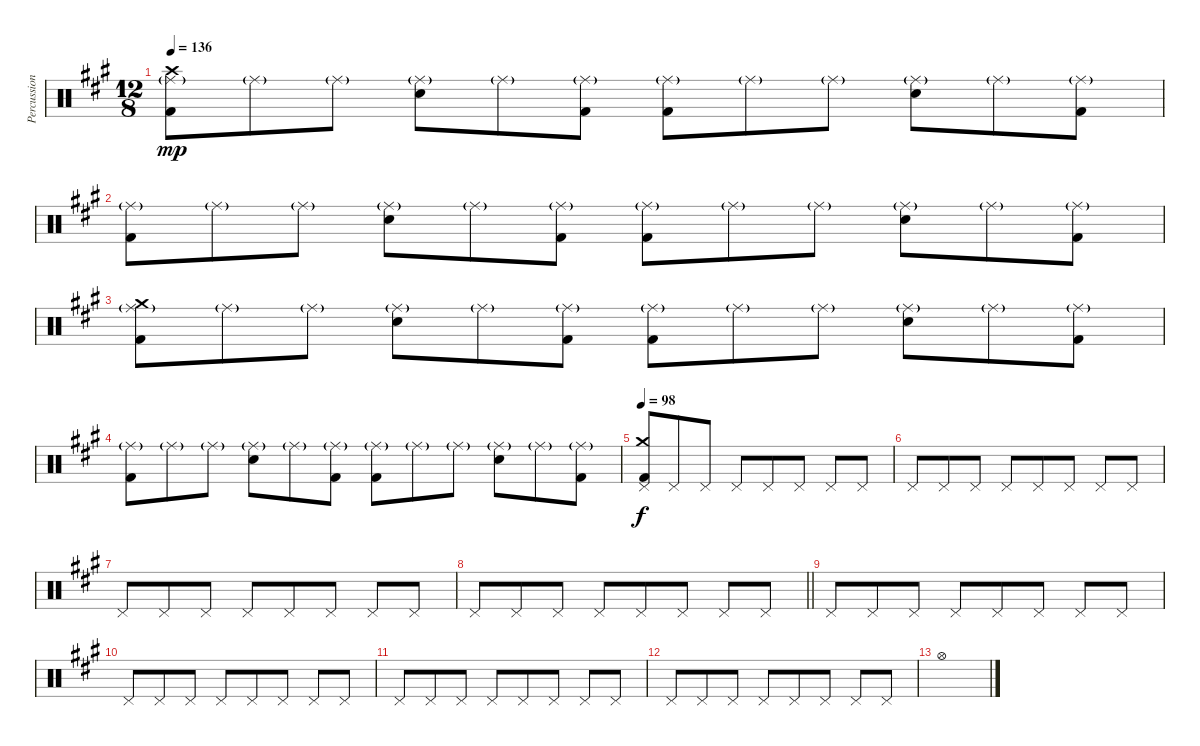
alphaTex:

\track ("Percussions" "Percussion") {instrument percussion}
\staff {score}
\articulation defaults
\ts (12 8)
\tempo 136
\clef neutral
\ks a
("Ride (middle)"{g} "Crash high (hit)" "Kick (hit) 2").8{dy mp} "Ride (middle)"{g}.8 "Ride (middle)"{g}.8 ("Ride (middle)"{g} "Snare (hit) 2").8 "Ride (middle)"{g}.8 ("Ride (middle)"{g} "Kick (hit) 2").8 ("Ride (middle)"{g} "Kick (hit) 2").8 "Ride (middle)"{g}.8 "Ride (middle)"{g}.8 ("Ride (middle)"{g} "Snare (hit) 2").8 "Ride (middle)"{g}.8 ("Ride (middle)"{g} "Kick (hit) 2").8 |
("Ride (middle)"{g} "Kick (hit) 2").8 "Ride (middle)"{g}.8 "Ride (middle)"{g}.8 ("Ride (middle)"{g} "Snare (hit) 2").8 "Ride (middle)"{g}.8 ("Ride (middle)"{g} "Kick (hit) 2").8 ("Ride (middle)"{g} "Kick (hit) 2").8 "Ride (middle)"{g}.8 "Ride (middle)"{g}.8 ("Ride (middle)"{g} "Snare (hit) 2").8 "Ride (middle)"{g}.8 ("Ride (middle)"{g} "Kick (hit) 2").8 |
("Ride (middle)"{g} "Crash medium (hit)" "Kick (hit) 2").8 "Ride (middle)"{g}.8 "Ride (middle)"{g}.8 ("Ride (middle)"{g} "Snare (hit) 2").8 "Ride (middle)"{g}.8 ("Ride (middle)"{g} "Kick (hit) 2").8 ("Ride (middle)"{g} "Kick (hit) 2").8 "Ride (middle)"{g}.8 "Ride (middle)"{g}.8 ("Ride (middle)"{g} "Snare (hit) 2").8 "Ride (middle)"{g}.8 ("Ride (middle)"{g} "Kick (hit) 2").8 |
("Ride (middle)"{g} "Kick (hit) 2").8 "Ride (middle)"{g}.8 "Ride (middle)"{g}.8 ("Ride (middle)"{g} "Snare (hit) 2").8 "Ride (middle)"{g}.8 ("Ride (middle)"{g} "Kick (hit) 2").8 ("Ride (middle)"{g} "Kick (hit) 2").8 "Ride (middle)"{g}.8 "Ride (middle)"{g}.8 ("Ride (middle)"{g} "Snare (hit) 2").8 "Ride (middle)"{g}.8 ("Ride (middle)"{g} "Kick (hit) 2").8 |
\tempo 98
("Crash medium (hit)" "Kick (hit) 2" "Pedal Hi-Hat (hit)").8{dy f} "Pedal Hi-Hat (hit)".8 "Pedal Hi-Hat (hit)".8 "Pedal Hi-Hat (hit)".8 "Pedal Hi-Hat (hit)".8 "Pedal Hi-Hat (hit)".8 "Pedal Hi-Hat (hit)".8 "Pedal Hi-Hat (hit)".8 |
"Pedal Hi-Hat (hit)".8 "Pedal Hi-Hat (hit)".8 "Pedal Hi-Hat (hit)".8 "Pedal Hi-Hat (hit)".8 "Pedal Hi-Hat (hit)".8 "Pedal Hi-Hat (hit)".8 "Pedal Hi-Hat (hit)".8 "Pedal Hi-Hat (hit)".8 |
"Pedal Hi-Hat (hit)".8 "Pedal Hi-Hat (hit)".8 "Pedal Hi-Hat (hit)".8 "Pedal Hi-Hat (hit)".8 "Pedal Hi-Hat (hit)".8 "Pedal Hi-Hat (hit)".8 "Pedal Hi-Hat (hit)".8 "Pedal Hi-Hat (hit)".8 |
\barLineRight lightlight "Pedal Hi-Hat (hit)".8 "Pedal Hi-Hat (hit)".8 "Pedal Hi-Hat (hit)".8 "Pedal Hi-Hat (hit)".8 "Pedal Hi-Hat (hit)".8 "Pedal Hi-Hat (hit)".8 "Pedal Hi-Hat (hit)".8 "Pedal Hi-Hat (hit)".8
|
"Pedal Hi-Hat (hit)".8 "Pedal Hi-Hat (hit)".8 "Pedal Hi-Hat (hit)".8 "Pedal Hi-Hat (hit)".8 "Pedal Hi-Hat (hit)".8 "Pedal Hi-Hat (hit)".8 "Pedal Hi-Hat (hit)".8 "Pedal Hi-Hat (hit)".8 |
"Pedal Hi-Hat (hit)".8 "Pedal Hi-Hat (hit)".8 "Pedal Hi-Hat (hit)".8 "Pedal Hi-Hat (hit)".8 "Pedal Hi-Hat (hit)".8 "Pedal Hi-Hat (hit)".8 "Pedal Hi-Hat (hit)".8 "Pedal Hi-Hat (hit)".8 |
"Pedal Hi-Hat (hit)".8 "Pedal Hi-Hat (hit)".8 "Pedal Hi-Hat (hit)".8 "Pedal Hi-Hat (hit)".8 "Pedal Hi-Hat (hit)".8 "Pedal Hi-Hat (hit)".8 "Pedal Hi-Hat (hit)".8 "Pedal Hi-Hat (hit)".8 |
"Pedal Hi-Hat (hit)".8 "Pedal Hi-Hat (hit)".8 "Pedal Hi-Hat (hit)".8 "Pedal Hi-Hat (hit)".8 "Pedal Hi-Hat (hit)".8 "Pedal Hi-Hat (hit)".8 "Pedal Hi-Hat (hit)".8 "Pedal Hi-Hat (hit)".8 |
"Hi-Hat (open)".1
